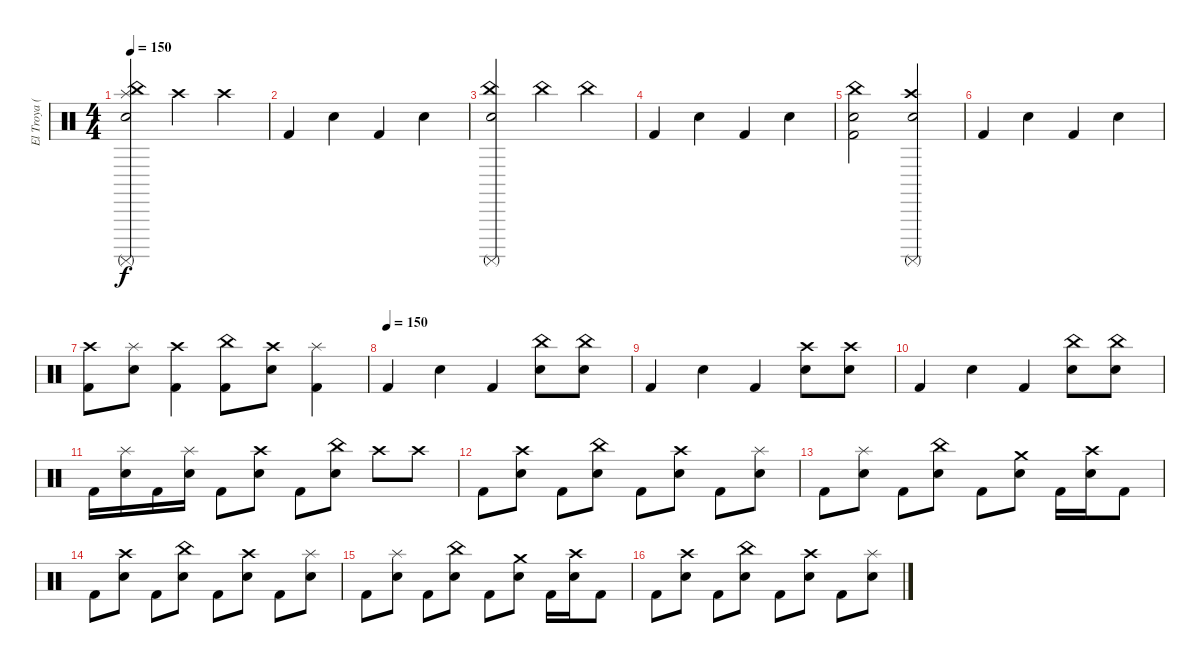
\track ("El Troya (premio)" "El Troya (") {instrument percussion}
\staff {score}
\articulation defaults
\ts (4 4)
\tempo 150
\clef neutral
\ks c
("Splash (hit)" "China (hit)" "Electric Snare (hit)" "Surdo (mute)").2{dy f} "Crash high (hit)".4 "Crash high (hit)".4 |
"Kick (hit) 2".4 "Snare (hit) 2".4 "Kick (hit) 2".4 "Snare (hit) 2".4 |
("China (hit)" "Electric Snare (hit)" "Surdo (mute)").2 "China (hit)".4 "China (hit)".4 |
"Kick (hit) 2".4 "Snare (hit) 2".4 "Kick (hit) 2".4 "Snare (hit) 2".4 |
("China (hit)" "Electric Snare (hit)" "Kick (hit) 2").2 ("Crash high (hit)" "Surdo (mute)" "Snare (hit) 2").2 |
"Kick (hit) 2".4 "Snare (hit) 2".4 "Kick (hit) 2".4 "Snare (hit) 2".4 |
("Crash high (hit)" "Kick (hit) 2").8 ("Splash (hit)" "Snare (hit) 2").8 ("Crash high (hit)" "Kick (hit) 2").4 ("China (hit)" "Kick (hit) 2").8 ("Crash high (hit)" "Snare (hit) 2").8 ("Splash (hit)" "Kick (hit) 2").4 |
\tempo (150)
"Kick (hit) 2".4 "Snare (hit) 2".4 "Kick (hit) 2".4 ("China (hit)" "Snare (hit) 2").8 ("China (hit)" "Snare (hit) 2").8 |
"Kick (hit) 2".4 "Snare (hit) 2".4 "Kick (hit) 2".4 ("Crash high (hit)" "Snare (hit) 2").8 ("Crash high (hit)" "Snare (hit) 2").8 |
"Kick (hit) 2".4 "Snare (hit) 2".4 "Kick (hit) 2".4 ("China (hit)" "Snare (hit) 2").8 ("China (hit)" "Snare (hit) 2").8 |
"Kick (hit) 2".16 ("Splash (hit)" "Snare (hit) 2").16 "Kick (hit) 2".16 ("Splash (hit)" "Snare (hit) 2").16 "Kick (hit) 2".8 ("Crash high (hit)" "Snare (hit) 2").8 "Kick (hit) 2".8 ("China (hit)" "Snare (hit) 2").8 "Crash high (hit)".8 "Crash high (hit)".8 |
"Kick (hit) 2".8 ("Crash high (hit)" "Snare (hit) 2").8 "Kick (hit) 2".8 ("China (hit)" "Snare (hit) 2").8 "Kick (hit) 2".8 ("Snare (hit) 2" "Crash high (hit)").8 "Kick (hit) 2".8 ("Splash (hit)" "Snare (hit) 2").8 |
"Kick (hit) 2".8 ("Splash (hit)" "Snare (hit) 2").8 "Kick (hit) 2".8 ("China (hit)" "Snare (hit) 2").8 "Kick (hit) 2".8 ("Crash medium (hit)" "Snare (hit) 2").8 "Kick (hit) 2".16 ("Crash high (hit)" "Snare (hit) 2").16 "Kick (hit) 2".8 |
"Kick (hit) 2".8 ("Crash high (hit)" "Snare (hit) 2").8 "Kick (hit) 2".8 ("China (hit)" "Snare (hit) 2").8 "Kick (hit) 2".8 ("Snare (hit) 2" "Crash high (hit)").8 "Kick (hit) 2".8 ("Splash (hit)" "Snare (hit) 2").8 |
"Kick (hit) 2".8 ("Splash (hit)" "Snare (hit) 2").8 "Kick (hit) 2".8 ("China (hit)" "Snare (hit) 2").8 "Kick (hit) 2".8 ("Crash medium (hit)" "Snare (hit) 2").8 "Kick (hit) 2".16 ("Crash high (hit)" "Snare (hit) 2").16 "Kick (hit) 2".8 |
"Kick (hit) 2".8 ("Crash high (hit)" "Snare (hit) 2").8 "Kick (hit) 2".8 ("China (hit)" "Snare (hit) 2").8 "Kick (hit) 2".8 ("Snare (hit) 2" "Crash high (hit)").8 "Kick (hit) 2".8 ("Splash (hit)" "Snare (hit) 2").8
